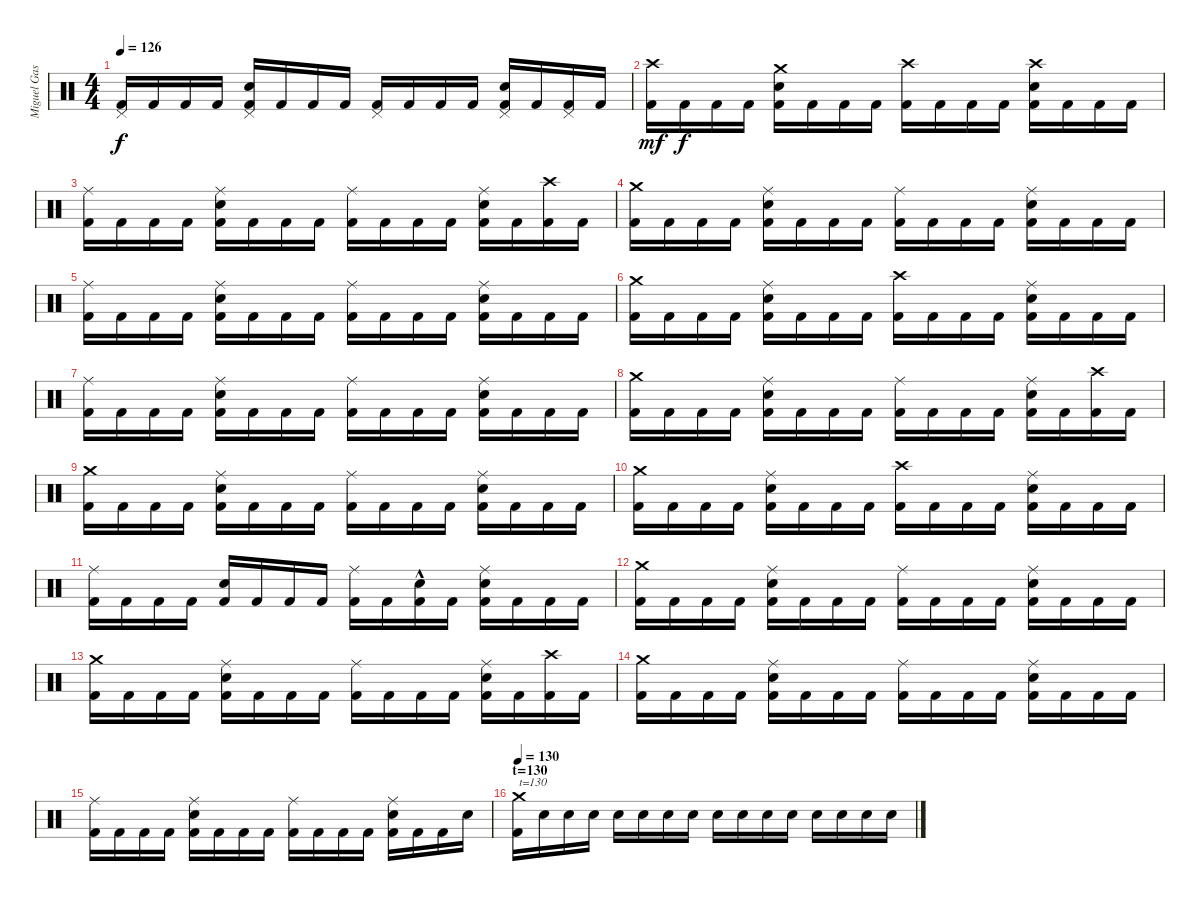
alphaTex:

\track ("Miguel Gaspar - Drums" "Miguel Gas") {instrument percussion}
\staff {score}
\articulation defaults
\ts (4 4)
\tempo 126
\clef neutral
\ks c
("Pedal Hi-Hat (hit)" "Kick (hit) 2").16{dy f} "Kick (hit) 2".16 "Kick (hit) 2".16 "Kick (hit) 2".16 ("Pedal Hi-Hat (hit)" "Electric Snare (hit)" "Kick (hit) 2").16 "Kick (hit) 2".16 "Kick (hit) 2".16 "Kick (hit) 2".16 ("Pedal Hi-Hat (hit)" "Kick (hit) 2").16 "Kick (hit) 2".16 "Kick (hit) 2".16 "Kick (hit) 2".16 ("Pedal Hi-Hat (hit)" "Electric Snare (hit)" "Kick (hit) 2").16 "Kick (hit) 2".16 ("Pedal Hi-Hat (hit)" "Kick (hit) 2").16 "Kick (hit) 2".16 |
("Crash high (hit)" "Kick (hit) 2").16{dy mf} "Kick (hit) 2".16{dy f} "Kick (hit) 2".16 "Kick (hit) 2".16 ("Crash medium (hit)" "Electric Snare (hit)" "Kick (hit) 2").16 "Kick (hit) 2".16 "Kick (hit) 2".16 "Kick (hit) 2".16 ("Crash high (hit)" "Kick (hit) 2").16 "Kick (hit) 2".16 "Kick (hit) 2".16 "Kick (hit) 2".16 ("Crash high (hit)" "Electric Snare (hit)" "Kick (hit) 2").16 "Kick (hit) 2".16 "Kick (hit) 2".16 "Kick (hit) 2".16 |
("Ride (middle)" "Kick (hit) 2").16 "Kick (hit) 2".16 "Kick (hit) 2".16 "Kick (hit) 2".16 ("Ride (middle)" "Electric Snare (hit)" "Kick (hit) 2").16 "Kick (hit) 2".16 "Kick (hit) 2".16 "Kick (hit) 2".16 ("Ride (middle)" "Kick (hit) 2").16 "Kick (hit) 2".16 "Kick (hit) 2".16 "Kick (hit) 2".16 ("Ride (middle)" "Electric Snare (hit)" "Kick (hit) 2").16 "Kick (hit) 2".16 ("Crash high (hit)" "Kick (hit) 2").16 "Kick (hit) 2".16 |
("Crash medium (hit)" "Kick (hit) 2").16 "Kick (hit) 2".16 "Kick (hit) 2".16 "Kick (hit) 2".16 ("Ride (middle)" "Electric Snare (hit)" "Kick (hit) 2").16 "Kick (hit) 2".16 "Kick (hit) 2".16 "Kick (hit) 2".16 ("Ride (middle)" "Kick (hit) 2").16 "Kick (hit) 2".16 "Kick (hit) 2".16 "Kick (hit) 2".16 ("Ride (middle)" "Electric Snare (hit)" "Kick (hit) 2").16 "Kick (hit) 2".16 "Kick (hit) 2".16 "Kick (hit) 2".16 |
("Ride (middle)" "Kick (hit) 2").16 "Kick (hit) 2".16 "Kick (hit) 2".16 "Kick (hit) 2".16 ("Ride (middle)" "Electric Snare (hit)" "Kick (hit) 2").16 "Kick (hit) 2".16 "Kick (hit) 2".16 "Kick (hit) 2".16 ("Ride (middle)" "Kick (hit) 2").16 "Kick (hit) 2".16 "Kick (hit) 2".16 "Kick (hit) 2".16 ("Ride (middle)" "Electric Snare (hit)" "Kick (hit) 2").16 "Kick (hit) 2".16 "Kick (hit) 2".16 "Kick (hit) 2".16 |
("Crash medium (hit)" "Kick (hit) 2").16 "Kick (hit) 2".16 "Kick (hit) 2".16 "Kick (hit) 2".16 ("Ride (middle)" "Electric Snare (hit)" "Kick (hit) 2").16 "Kick (hit) 2".16 "Kick (hit) 2".16 "Kick (hit) 2".16 ("Crash high (hit)" "Kick (hit) 2").16 "Kick (hit) 2".16 "Kick (hit) 2".16 "Kick (hit) 2".16 ("Ride (middle)" "Electric Snare (hit)" "Kick (hit) 2").16 "Kick (hit) 2".16 "Kick (hit) 2".16 "Kick (hit) 2".16 |
("Ride (middle)" "Kick (hit) 2").16 "Kick (hit) 2".16 "Kick (hit) 2".16 "Kick (hit) 2".16 ("Ride (middle)" "Electric Snare (hit)" "Kick (hit) 2").16 "Kick (hit) 2".16 "Kick (hit) 2".16 "Kick (hit) 2".16 ("Ride (middle)" "Kick (hit) 2").16 "Kick (hit) 2".16 "Kick (hit) 2".16 "Kick (hit) 2".16 ("Ride (middle)" "Electric Snare (hit)" "Kick (hit) 2").16 "Kick (hit) 2".16 "Kick (hit) 2".16 "Kick (hit) 2".16 |
\section ("" "")
("Crash medium (hit)" "Kick (hit) 2").16{volume 16 balance 8} "Kick (hit) 2".16 "Kick (hit) 2".16 "Kick (hit) 2".16 ("Ride (middle)" "Electric Snare (hit)" "Kick (hit) 2").16 "Kick (hit) 2".16 "Kick (hit) 2".16 "Kick (hit) 2".16 ("Ride (middle)" "Kick (hit) 2").16 "Kick (hit) 2".16 "Kick (hit) 2".16 "Kick (hit) 2".16 ("Ride (middle)" "Electric Snare (hit)" "Kick (hit) 2").16 "Kick (hit) 2".16 ("Crash high (hit)" "Kick (hit) 2").16 "Kick (hit) 2".16 |
("Crash medium (hit)" "Kick (hit) 2").16 "Kick (hit) 2".16 "Kick (hit) 2".16 "Kick (hit) 2".16 ("Ride (middle)" "Electric Snare (hit)" "Kick (hit) 2").16 "Kick (hit) 2".16 "Kick (hit) 2".16 "Kick (hit) 2".16 ("Ride (middle)" "Kick (hit) 2").16 "Kick (hit) 2".16 "Kick (hit) 2".16 "Kick (hit) 2".16 ("Ride (middle)" "Electric Snare (hit)" "Kick (hit) 2").16 "Kick (hit) 2".16 "Kick (hit) 2".16 "Kick (hit) 2".16 |
("Crash medium (hit)" "Kick (hit) 2").16 "Kick (hit) 2".16 "Kick (hit) 2".16 "Kick (hit) 2".16 ("Ride (middle)" "Electric Snare (hit)" "Kick (hit) 2").16 "Kick (hit) 2".16 "Kick (hit) 2".16 "Kick (hit) 2".16 ("Crash high (hit)" "Kick (hit) 2").16 "Kick (hit) 2".16 "Kick (hit) 2".16 "Kick (hit) 2".16 ("Ride (middle)" "Electric Snare (hit)" "Kick (hit) 2").16 "Kick (hit) 2".16 "Kick (hit) 2".16 "Kick (hit) 2".16 |
("Ride (middle)" "Kick (hit) 2").16 "Kick (hit) 2".16 "Kick (hit) 2".16 "Kick (hit) 2".16 ("Electric Snare (hit)" "Kick (hit) 2").16 "Kick (hit) 2".16 "Kick (hit) 2".16 "Kick (hit) 2".16 ("Ride (middle)" "Kick (hit) 2").16 "Kick (hit) 2".16 ("Kick (hit) 2" "Snare (hit)"{hac}).16 "Kick (hit) 2".16 ("Ride (middle)" "Electric Snare (hit)" "Kick (hit) 2").16 "Kick (hit) 2".16 "Kick (hit) 2".16 "Kick (hit) 2".16 |
("Crash medium (hit)" "Kick (hit) 2").16 "Kick (hit) 2".16 "Kick (hit) 2".16 "Kick (hit) 2".16 ("Ride (middle)" "Electric Snare (hit)" "Kick (hit) 2").16 "Kick (hit) 2".16 "Kick (hit) 2".16 "Kick (hit) 2".16 ("Ride (middle)" "Kick (hit) 2").16 "Kick (hit) 2".16 "Kick (hit) 2".16 "Kick (hit) 2".16 ("Ride (middle)" "Electric Snare (hit)" "Kick (hit) 2").16 "Kick (hit) 2".16 "Kick (hit) 2".16 "Kick (hit) 2".16 |
("Crash medium (hit)" "Kick (hit) 2").16 "Kick (hit) 2".16 "Kick (hit) 2".16 "Kick (hit) 2".16 ("Ride (middle)" "Electric Snare (hit)" "Kick (hit) 2").16 "Kick (hit) 2".16 "Kick (hit) 2".16 "Kick (hit) 2".16 ("Ride (middle)" "Kick (hit) 2").16 "Kick (hit) 2".16 "Kick (hit) 2".16 "Kick (hit) 2".16 ("Ride (middle)" "Electric Snare (hit)" "Kick (hit) 2").16 "Kick (hit) 2".16 ("Crash high (hit)" "Kick (hit) 2").16 "Kick (hit) 2".16 |
("Crash medium (hit)" "Kick (hit) 2").16 "Kick (hit) 2".16 "Kick (hit) 2".16 "Kick (hit) 2".16 ("Ride (middle)" "Electric Snare (hit)" "Kick (hit) 2").16 "Kick (hit) 2".16 "Kick (hit) 2".16 "Kick (hit) 2".16 ("Ride (middle)" "Kick (hit) 2").16 "Kick (hit) 2".16 "Kick (hit) 2".16 "Kick (hit) 2".16 ("Ride (middle)" "Electric Snare (hit)" "Kick (hit) 2").16 "Kick (hit) 2".16 "Kick (hit) 2".16 "Kick (hit) 2".16 |
("Ride (middle)" "Kick (hit) 2").16 "Kick (hit) 2".16 "Kick (hit) 2".16 "Kick (hit) 2".16 ("Ride (middle)" "Electric Snare (hit)" "Kick (hit) 2").16 "Kick (hit) 2".16 "Kick (hit) 2".16 "Kick (hit) 2".16 ("Ride (middle)" "Kick (hit) 2").16 "Kick (hit) 2".16 "Kick (hit) 2".16 "Kick (hit) 2".16 ("Ride (middle)" "Electric Snare (hit)" "Kick (hit) 2").16 "Kick (hit) 2".16 "Kick (hit) 2".16 "Snare (hit)".16 |
\section ("" "t=130")
\tempo 130
("Crash medium (hit)" "Kick (hit) 2").16{txt "t=130" volume 16 balance 8} "Snare (hit)".16 "Snare (hit)".16 "Snare (hit)".16 "Snare (hit)".16 "Snare (hit)".16 "Snare (hit)".16 "Snare (hit)".16 "Snare (hit)".16 "Snare (hit)".16 "Snare (hit)".16 "Snare (hit)".16 "Snare (hit)".16 "Snare (hit)".16 "Snare (hit)".16 "Snare (hit)".16
